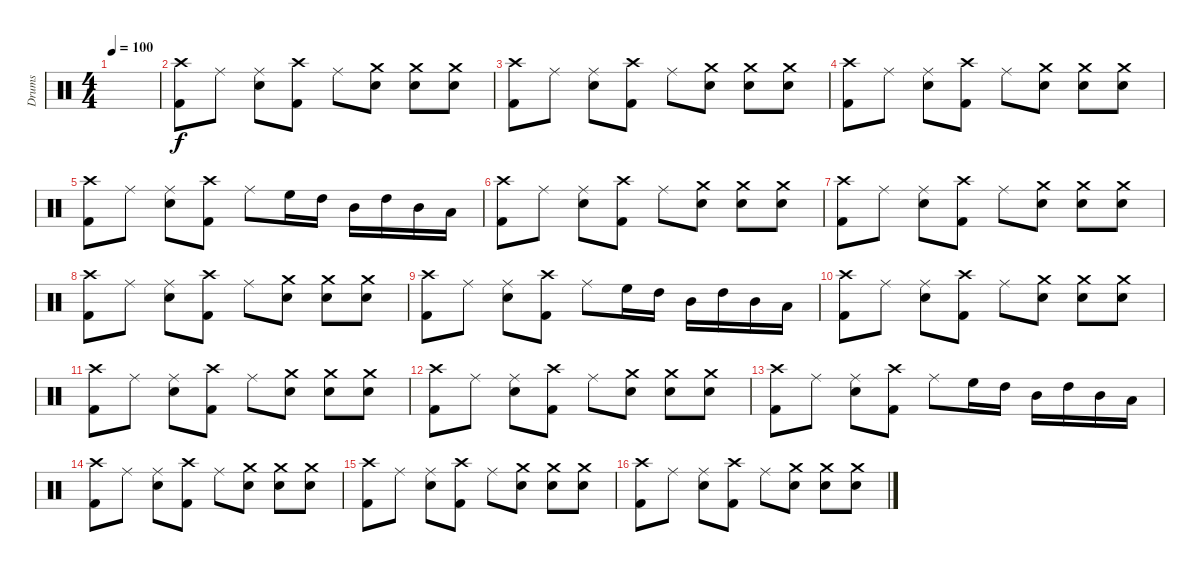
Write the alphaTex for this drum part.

\track ("Drums" "Drums") {instrument percussion}
\staff {score}
\articulation defaults
\ts (4 4)
\tempo 100
\clef neutral
\ks c
|
("Crash high (hit)" "Kick (hit) 2").8 "Ride (middle)".8 ("Ride (middle)" "Snare (hit) 2").8 ("Crash high (hit)" "Kick (hit) 2").8 "Ride (middle)".8 ("Crash medium (hit)" "Snare (hit) 2").8 ("Crash medium (hit)" "Snare (hit) 2").8 ("Crash medium (hit)" "Snare (hit) 2").8 |
("Crash high (hit)" "Kick (hit) 2").8 "Ride (middle)".8 ("Ride (middle)" "Snare (hit) 2").8 ("Crash high (hit)" "Kick (hit) 2").8 "Ride (middle)".8 ("Crash medium (hit)" "Snare (hit) 2").8 ("Crash medium (hit)" "Snare (hit) 2").8 ("Crash medium (hit)" "Snare (hit) 2").8 |
("Crash high (hit)" "Kick (hit) 2").8 "Ride (middle)".8 ("Ride (middle)" "Snare (hit) 2").8 ("Crash high (hit)" "Kick (hit) 2").8 "Ride (middle)".8 ("Crash medium (hit)" "Snare (hit) 2").8 ("Crash medium (hit)" "Snare (hit) 2").8 ("Crash medium (hit)" "Snare (hit) 2").8 |
("Crash high (hit)" "Kick (hit) 2").8 "Ride (middle)".8 ("Ride (middle)" "Snare (hit) 2").8 ("Crash high (hit)" "Kick (hit) 2").8 "Ride (middle)".8 "High Floor Tom (hit)".16 "High Tom (hit)".16 "Mid Tom (hit)".16 "High Tom (hit)".16 "Mid Tom (hit)".16 "Low Tom (hit)".16 |
("Crash high (hit)" "Kick (hit) 2").8 "Ride (middle)".8 ("Ride (middle)" "Snare (hit) 2").8 ("Crash high (hit)" "Kick (hit) 2").8 "Ride (middle)".8 ("Crash medium (hit)" "Snare (hit) 2").8 ("Crash medium (hit)" "Snare (hit) 2").8 ("Crash medium (hit)" "Snare (hit) 2").8 |
("Crash high (hit)" "Kick (hit) 2").8 "Ride (middle)".8 ("Ride (middle)" "Snare (hit) 2").8 ("Crash high (hit)" "Kick (hit) 2").8 "Ride (middle)".8 ("Crash medium (hit)" "Snare (hit) 2").8 ("Crash medium (hit)" "Snare (hit) 2").8 ("Crash medium (hit)" "Snare (hit) 2").8 |
("Crash high (hit)" "Kick (hit) 2").8 "Ride (middle)".8 ("Ride (middle)" "Snare (hit) 2").8 ("Crash high (hit)" "Kick (hit) 2").8 "Ride (middle)".8 ("Crash medium (hit)" "Snare (hit) 2").8 ("Crash medium (hit)" "Snare (hit) 2").8 ("Crash medium (hit)" "Snare (hit) 2").8 |
("Crash high (hit)" "Kick (hit) 2").8 "Ride (middle)".8 ("Ride (middle)" "Snare (hit) 2").8 ("Crash high (hit)" "Kick (hit) 2").8 "Ride (middle)".8 "High Floor Tom (hit)".16 "High Tom (hit)".16 "Mid Tom (hit)".16 "High Tom (hit)".16 "Mid Tom (hit)".16 "Low Tom (hit)".16 |
("Crash high (hit)" "Kick (hit) 2").8 "Ride (middle)".8 ("Ride (middle)" "Snare (hit) 2").8 ("Crash high (hit)" "Kick (hit) 2").8 "Ride (middle)".8 ("Crash medium (hit)" "Snare (hit) 2").8 ("Crash medium (hit)" "Snare (hit) 2").8 ("Crash medium (hit)" "Snare (hit) 2").8 |
("Crash high (hit)" "Kick (hit) 2").8 "Ride (middle)".8 ("Ride (middle)" "Snare (hit) 2").8 ("Crash high (hit)" "Kick (hit) 2").8 "Ride (middle)".8 ("Crash medium (hit)" "Snare (hit) 2").8 ("Crash medium (hit)" "Snare (hit) 2").8 ("Crash medium (hit)" "Snare (hit) 2").8 |
("Crash high (hit)" "Kick (hit) 2").8 "Ride (middle)".8 ("Ride (middle)" "Snare (hit) 2").8 ("Crash high (hit)" "Kick (hit) 2").8 "Ride (middle)".8 ("Crash medium (hit)" "Snare (hit) 2").8 ("Crash medium (hit)" "Snare (hit) 2").8 ("Crash medium (hit)" "Snare (hit) 2").8 |
("Crash high (hit)" "Kick (hit) 2").8 "Ride (middle)".8 ("Ride (middle)" "Snare (hit) 2").8 ("Crash high (hit)" "Kick (hit) 2").8 "Ride (middle)".8 "High Floor Tom (hit)".16 "High Tom (hit)".16 "Mid Tom (hit)".16 "High Tom (hit)".16 "Mid Tom (hit)".16 "Low Tom (hit)".16 |
("Crash high (hit)" "Kick (hit) 2").8 "Ride (middle)".8 ("Ride (middle)" "Snare (hit) 2").8 ("Crash high (hit)" "Kick (hit) 2").8 "Ride (middle)".8 ("Crash medium (hit)" "Snare (hit) 2").8 ("Crash medium (hit)" "Snare (hit) 2").8 ("Crash medium (hit)" "Snare (hit) 2").8 |
("Crash high (hit)" "Kick (hit) 2").8 "Ride (middle)".8 ("Ride (middle)" "Snare (hit) 2").8 ("Crash high (hit)" "Kick (hit) 2").8 "Ride (middle)".8 ("Crash medium (hit)" "Snare (hit) 2").8 ("Crash medium (hit)" "Snare (hit) 2").8 ("Crash medium (hit)" "Snare (hit) 2").8 |
("Crash high (hit)" "Kick (hit) 2").8 "Ride (middle)".8 ("Ride (middle)" "Snare (hit) 2").8 ("Crash high (hit)" "Kick (hit) 2").8 "Ride (middle)".8 ("Crash medium (hit)" "Snare (hit) 2").8 ("Crash medium (hit)" "Snare (hit) 2").8 ("Crash medium (hit)" "Snare (hit) 2").8
